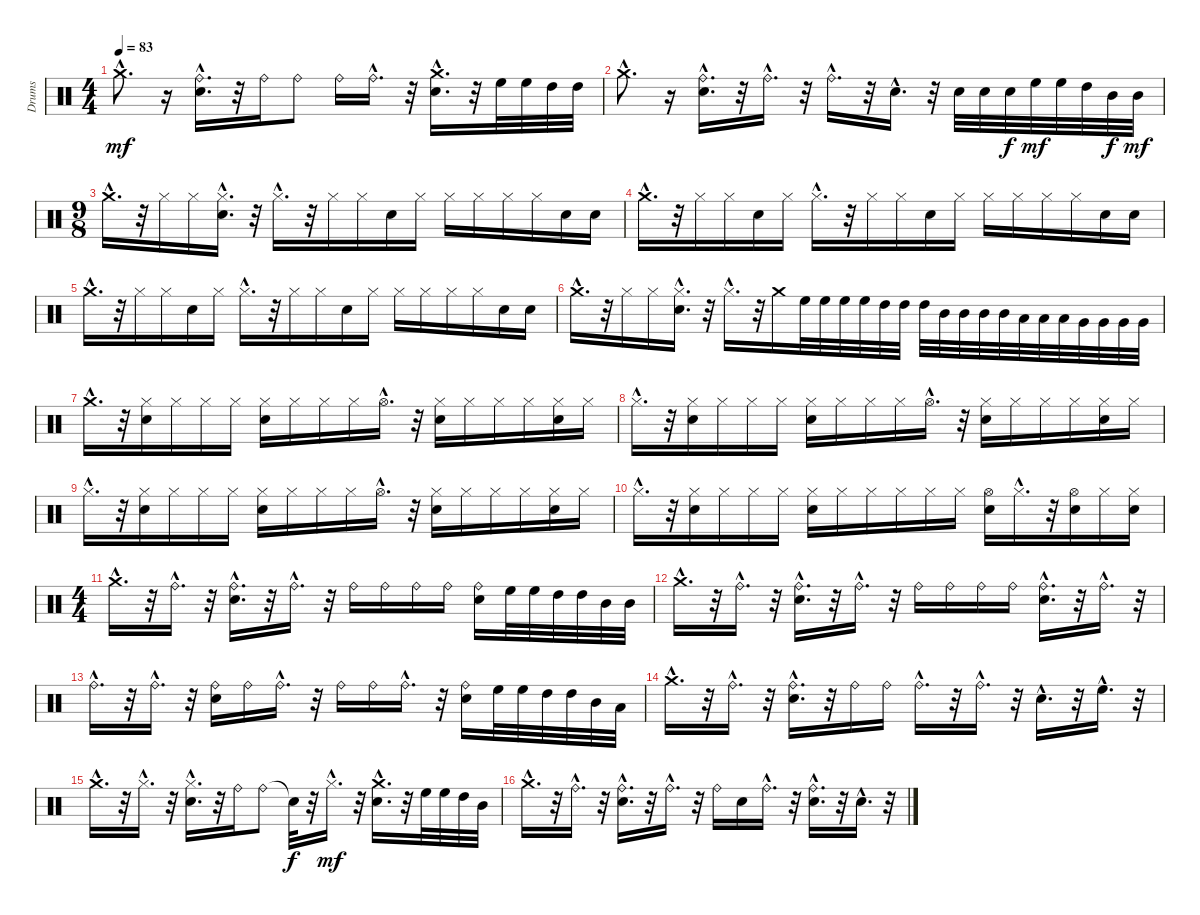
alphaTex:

\track ("Drums" "Drums") {instrument percussion}
\staff {score}
\articulation defaults
\ts (4 4)
\tempo 83
\clef neutral
\ks c "Crash medium (hit)"{hac}.8{d dy mf}
r.16 ("Electric Snare (hit)"{hac} "Ride (bell)"{hac}).16{d} r.32 "Ride (bell)".16 "Ride (bell)".8 "Ride (bell)".16 "Ride (bell)"{hac}.16{d} r.32 ("Crash medium (hit)"{hac} "Electric Snare (hit)"{hac}).16{d} r.32 "High Floor Tom (hit)".32 "High Floor Tom (hit)".32 "High Tom (hit)".32 "High Tom (hit)".32 |
"Crash medium (hit)"{hac}.8{d} r.16 ("Electric Snare (hit)"{hac} "Ride (bell)"{hac}).16{d} r.32 "Ride (bell)"{hac}.16{d} r.32 "Ride (bell)"{hac}.16{d} r.32 "Electric Snare (hit)"{hac}.16{d} r.32 "Electric Snare (hit)".32 "Electric Snare (hit)".32 "Electric Snare (hit)".32{dy f} "High Floor Tom (hit)".32{dy mf} "High Floor Tom (hit)".32 "High Tom (hit)".32 "Mid Tom (hit)".32{dy f} "Mid Tom (hit)".32{dy mf} |
\ts (9 8)
"Crash medium (hit)"{hac}.16{d} r.32 "Hi-Hat (closed)".16 "Hi-Hat (closed)".16 ("Hi-Hat (closed)"{hac} "Electric Snare (hit)"{hac}).16{d} r.32 "Hi-Hat (closed)"{hac}.16{d} r.32 "Hi-Hat (closed)".16 "Hi-Hat (closed)".16 "Electric Snare (hit)".16 "Hi-Hat (closed)".16 "Hi-Hat (closed)".16 "Hi-Hat (closed)".16 "Hi-Hat (closed)".16 "Hi-Hat (closed)".16 "Electric Snare (hit)".16 "Electric Snare (hit)".16 |
"Crash medium (hit)"{hac}.16{d} r.32 "Hi-Hat (closed)".16 "Hi-Hat (closed)".16 "Electric Snare (hit)".16 "Hi-Hat (closed)".16 "Hi-Hat (closed)"{hac}.16{d} r.32 "Hi-Hat (closed)".16 "Hi-Hat (closed)".16 "Electric Snare (hit)".16 "Hi-Hat (closed)".16 "Hi-Hat (closed)".16 "Hi-Hat (closed)".16 "Hi-Hat (closed)".16 "Hi-Hat (closed)".16 "Electric Snare (hit)".16 "Electric Snare (hit)".16 |
"Crash medium (hit)"{hac}.16{d} r.32 "Hi-Hat (closed)".16 "Hi-Hat (closed)".16 "Electric Snare (hit)".16 "Hi-Hat (closed)".16 "Hi-Hat (closed)"{hac}.16{d} r.32 "Hi-Hat (closed)".16 "Hi-Hat (closed)".16 "Electric Snare (hit)".16 "Hi-Hat (closed)".16 "Hi-Hat (closed)".16 "Hi-Hat (closed)".16 "Hi-Hat (closed)".16 "Hi-Hat (closed)".16 "Electric Snare (hit)".16 "Electric Snare (hit)".16 |
"Crash medium (hit)"{hac}.16{d} r.32 "Hi-Hat (closed)".16 "Hi-Hat (closed)".16 ("Electric Snare (hit)"{hac} "Hi-Hat (closed)"{hac}).16{d} r.32 "Hi-Hat (closed)"{hac}.16{d} r.32 "Crash medium (hit)".16 "High Floor Tom (hit)".32 "High Floor Tom (hit)".32 "High Floor Tom (hit)".32 "High Floor Tom (hit)".32 "High Tom (hit)".32 "High Tom (hit)".32 "High Tom (hit)".32 "Mid Tom (hit)".32 "Mid Tom (hit)".32 "Mid Tom (hit)".32 "Mid Tom (hit)".32 "Low Tom (hit)".32 "Low Tom (hit)".32 "Low Tom (hit)".32 "Very Low Tom (hit)".32 "Very Low Tom (hit)".32 "Very Low Tom (hit)".32 "Very Low Tom (hit)".32 |
"Crash medium (hit)"{hac}.16{d} r.32 ("Electric Snare (hit)" "Hi-Hat (closed)").16 "Hi-Hat (closed)".16 "Hi-Hat (closed)".16 "Hi-Hat (closed)".16 ("Hi-Hat (closed)" "Electric Snare (hit)").16 "Hi-Hat (closed)".16 "Hi-Hat (closed)".16 "Hi-Hat (closed)".16 "Hi-Hat (open)"{hac}.16{d} r.32 ("Electric Snare (hit)" "Hi-Hat (closed)").16 "Hi-Hat (closed)".16 "Hi-Hat (closed)".16 "Hi-Hat (closed)".16 ("Electric Snare (hit)" "Hi-Hat (closed)").16 "Hi-Hat (closed)".16 |
"Hi-Hat (closed)"{hac}.16{d} r.32 ("Electric Snare (hit)" "Hi-Hat (closed)").16 "Hi-Hat (closed)".16 "Hi-Hat (closed)".16 "Hi-Hat (closed)".16 ("Hi-Hat (closed)" "Electric Snare (hit)").16 "Hi-Hat (closed)".16 "Hi-Hat (closed)".16 "Hi-Hat (closed)".16 "Hi-Hat (open)"{hac}.16{d} r.32 ("Hi-Hat (closed)" "Electric Snare (hit)").16 "Hi-Hat (closed)".16 "Hi-Hat (closed)".16 "Hi-Hat (closed)".16 ("Hi-Hat (closed)" "Electric Snare (hit)").16 "Hi-Hat (closed)".16 |
"Hi-Hat (closed)"{hac}.16{d} r.32 ("Electric Snare (hit)" "Hi-Hat (closed)").16 "Hi-Hat (closed)".16 "Hi-Hat (closed)".16 "Hi-Hat (closed)".16 ("Hi-Hat (closed)" "Electric Snare (hit)").16 "Hi-Hat (closed)".16 "Hi-Hat (closed)".16 "Hi-Hat (closed)".16 "Hi-Hat (open)"{hac}.16{d} r.32 ("Electric Snare (hit)" "Hi-Hat (closed)").16 "Hi-Hat (closed)".16 "Hi-Hat (closed)".16 "Hi-Hat (closed)".16 ("Hi-Hat (closed)" "Electric Snare (hit)").16 "Hi-Hat (closed)".16 |
"Hi-Hat (closed)"{hac}.16{d} r.32 ("Electric Snare (hit)" "Hi-Hat (closed)").16 "Hi-Hat (closed)".16 "Hi-Hat (closed)".16 "Hi-Hat (closed)".16 ("Electric Snare (hit)" "Hi-Hat (closed)").16 "Hi-Hat (closed)".16 "Hi-Hat (closed)".16 "Hi-Hat (closed)".16 "Hi-Hat (closed)".16 "Hi-Hat (closed)".16 ("Hi-Hat (open)" "Electric Snare (hit)").16 "Hi-Hat (closed)"{hac}.16{d} r.32 ("Hi-Hat (open)" "Electric Snare (hit)").16 "Hi-Hat (closed)".16 ("Electric Snare (hit)" "Hi-Hat (closed)").16 |
\ts (4 4)
"Crash medium (hit)"{hac}.16{d} r.32 "Ride (bell)"{hac}.16{d} r.32 ("Ride (bell)"{hac} "Electric Snare (hit)"{hac}).16{d} r.32 "Ride (bell)"{hac}.16{d} r.32 "Ride (bell)".16 "Ride (bell)".16 "Ride (bell)".16 "Ride (bell)".16 ("Electric Snare (hit)" "Ride (bell)").16 "High Floor Tom (hit)".32 "High Floor Tom (hit)".32 "High Tom (hit)".32 "High Tom (hit)".32 "Mid Tom (hit)".32 "Mid Tom (hit)".32 |
"Crash medium (hit)"{hac}.16{d} r.32 "Ride (bell)"{hac}.16{d} r.32 ("Electric Snare (hit)"{hac} "Ride (bell)"{hac}).16{d} r.32 "Ride (bell)"{hac}.16{d} r.32 "Ride (bell)".16 "Ride (bell)".16 "Ride (bell)".16 "Ride (bell)".16 ("Electric Snare (hit)"{hac} "Ride (bell)"{hac}).16{d} r.32 "Ride (bell)"{hac}.16{d} r.32 |
"Ride (bell)"{hac}.16{d} r.32 "Ride (bell)"{hac}.16{d} r.32 ("Ride (bell)" "Electric Snare (hit)").16 "Ride (bell)".16 "Ride (bell)"{hac}.16{d} r.32 "Ride (bell)".16 "Ride (bell)".16 "Ride (bell)"{hac}.16{d} r.32 ("Electric Snare (hit)" "Ride (bell)").16 "High Floor Tom (hit)".32 "High Floor Tom (hit)".32 "High Tom (hit)".32 "High Tom (hit)".32 "Mid Tom (hit)".32 "Low Tom (hit)".32 |
"Crash medium (hit)"{hac}.16{d} r.32 "Ride (bell)"{hac}.16{d} r.32 ("Electric Snare (hit)"{hac} "Ride (bell)"{hac}).16{d} r.32 "Ride (bell)".16 "Ride (bell)".16 "Ride (bell)"{hac}.16{d} r.32 "Ride (bell)"{hac}.16{d} r.32 "Electric Snare (hit)"{hac}.16{d} r.32 "High Floor Tom (hit)"{hac}.16{d} r.32 |
"Crash medium (hit)"{hac}.16{d} r.32 "Hi-Hat (closed)"{hac}.16{d} r.32 ("Hi-Hat (closed)"{hac} "Electric Snare (hit)"{hac}).16{d} r.32 "Ride (bell)".16 "Ride (bell)".8 "Snare (hit)"{t}.32{dy f} r.32 "Hi-Hat (closed)"{hac}.16{d dy mf} r.32 ("Crash medium (hit)"{hac} "Electric Snare (hit)"{hac}).16{d} r.32 "High Floor Tom (hit)".32 "High Floor Tom (hit)".32 "High Tom (hit)".32 "Mid Tom (hit)".32 |
"Crash medium (hit)"{hac}.16{d} r.32 "Ride (bell)"{hac}.16{d} r.32 ("Ride (bell)"{hac} "Electric Snare (hit)"{hac}).16{d} r.32 "Ride (bell)"{hac}.16{d} r.32 "Ride (bell)".16 "Electric Snare (hit)".16 "Ride (bell)"{hac}.16{d} r.32 ("Electric Snare (hit)"{hac} "Ride (bell)"{hac}).16{d} r.32 "Electric Snare (hit)"{hac}.16{d} r.32
